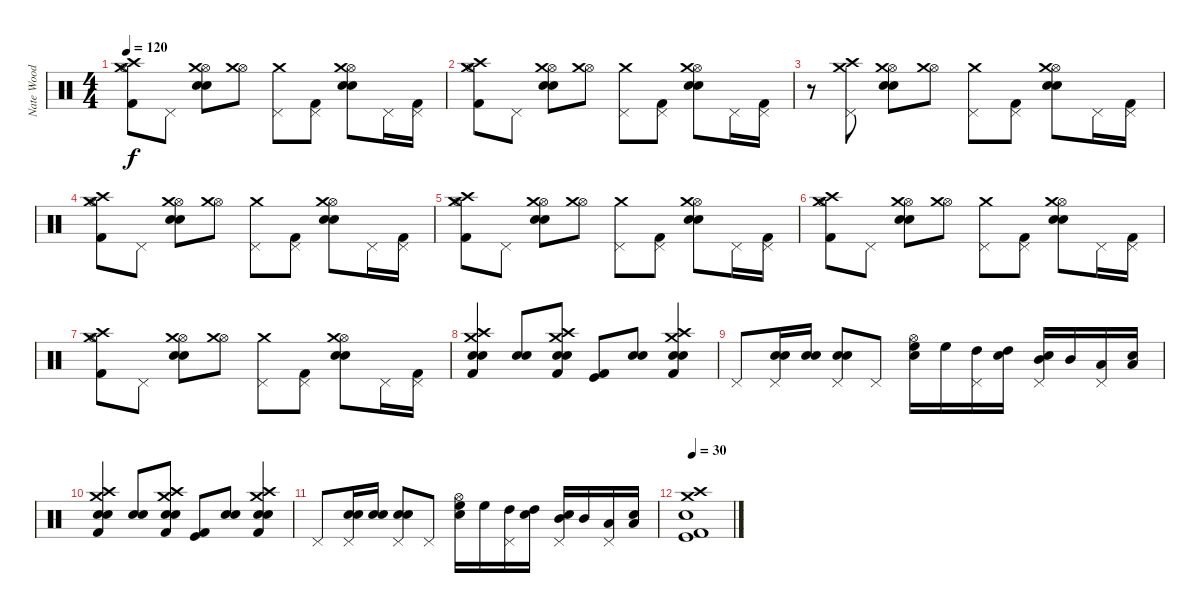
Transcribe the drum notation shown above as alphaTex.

\track ("Nate Wood  (Drums)" "Nate Wood ") {instrument percussion}
\staff {score}
\articulation defaults
\ts (4 4)
\tempo 120
\clef neutral
\ks c
("Kick (hit) 2" "Hi-Hat (open)" "Crash medium (hit)" "Crash high (hit)").8{dy f} "Pedal Hi-Hat (hit)".8 ("Snare (hit) 2" "Electric Snare (hit)" "Hi-Hat (open)" "Crash medium (hit)").8 ("Hi-Hat (open)" "Crash medium (hit)").8 ("Pedal Hi-Hat (hit)" "Crash medium (hit)").8 ("Kick (hit) 2" "Pedal Hi-Hat (hit)").8 ("Snare (hit) 2" "Electric Snare (hit)" "Hi-Hat (open)" "Crash medium (hit)").8 "Pedal Hi-Hat (hit)".16 ("Kick (hit) 2" "Pedal Hi-Hat (hit)").16 |
("Kick (hit) 2" "Hi-Hat (open)" "Crash medium (hit)" "Crash high (hit)").8 "Pedal Hi-Hat (hit)".8 ("Snare (hit) 2" "Electric Snare (hit)" "Hi-Hat (open)" "Crash medium (hit)").8 ("Hi-Hat (open)" "Crash medium (hit)").8 ("Pedal Hi-Hat (hit)" "Crash medium (hit)").8 ("Kick (hit) 2" "Pedal Hi-Hat (hit)").8 ("Snare (hit) 2" "Electric Snare (hit)" "Hi-Hat (open)" "Crash medium (hit)").8 "Pedal Hi-Hat (hit)".16 ("Kick (hit) 2" "Pedal Hi-Hat (hit)").16 |
r.8 ("Pedal Hi-Hat (hit)" "Crash medium (hit)" "Crash high (hit)").8 ("Snare (hit) 2" "Electric Snare (hit)" "Hi-Hat (open)" "Crash medium (hit)").8 ("Hi-Hat (open)" "Crash medium (hit)").8 ("Pedal Hi-Hat (hit)" "Crash medium (hit)").8 ("Kick (hit) 2" "Pedal Hi-Hat (hit)").8 ("Snare (hit) 2" "Electric Snare (hit)" "Hi-Hat (open)" "Crash medium (hit)").8 "Pedal Hi-Hat (hit)".16 ("Kick (hit) 2" "Pedal Hi-Hat (hit)").16 |
("Kick (hit) 2" "Hi-Hat (open)" "Crash medium (hit)" "Crash high (hit)").8 "Pedal Hi-Hat (hit)".8 ("Snare (hit) 2" "Electric Snare (hit)" "Hi-Hat (open)" "Crash medium (hit)").8 ("Hi-Hat (open)" "Crash medium (hit)").8 ("Pedal Hi-Hat (hit)" "Crash medium (hit)").8 ("Kick (hit) 2" "Pedal Hi-Hat (hit)").8 ("Snare (hit) 2" "Electric Snare (hit)" "Hi-Hat (open)" "Crash medium (hit)").8 "Pedal Hi-Hat (hit)".16 ("Kick (hit) 2" "Pedal Hi-Hat (hit)").16 |
("Kick (hit) 2" "Hi-Hat (open)" "Crash medium (hit)" "Crash high (hit)").8 "Pedal Hi-Hat (hit)".8 ("Snare (hit) 2" "Electric Snare (hit)" "Hi-Hat (open)" "Crash medium (hit)").8 ("Hi-Hat (open)" "Crash medium (hit)").8 ("Pedal Hi-Hat (hit)" "Crash medium (hit)").8 ("Kick (hit) 2" "Pedal Hi-Hat (hit)").8 ("Snare (hit) 2" "Electric Snare (hit)" "Hi-Hat (open)" "Crash medium (hit)").8 "Pedal Hi-Hat (hit)".16 ("Kick (hit) 2" "Pedal Hi-Hat (hit)").16 |
("Kick (hit) 2" "Hi-Hat (open)" "Crash medium (hit)" "Crash high (hit)").8 "Pedal Hi-Hat (hit)".8 ("Snare (hit) 2" "Electric Snare (hit)" "Hi-Hat (open)" "Crash medium (hit)").8 ("Hi-Hat (open)" "Crash medium (hit)").8 ("Pedal Hi-Hat (hit)" "Crash medium (hit)").8 ("Kick (hit) 2" "Pedal Hi-Hat (hit)").8 ("Snare (hit) 2" "Electric Snare (hit)" "Hi-Hat (open)" "Crash medium (hit)").8 "Pedal Hi-Hat (hit)".16 ("Kick (hit) 2" "Pedal Hi-Hat (hit)").16 |
("Kick (hit) 2" "Hi-Hat (open)" "Crash medium (hit)" "Crash high (hit)").8 "Pedal Hi-Hat (hit)".8 ("Snare (hit) 2" "Electric Snare (hit)" "Hi-Hat (open)" "Crash medium (hit)").8 ("Hi-Hat (open)" "Crash medium (hit)").8 ("Pedal Hi-Hat (hit)" "Crash medium (hit)").8 ("Kick (hit) 2" "Pedal Hi-Hat (hit)").8 ("Snare (hit) 2" "Electric Snare (hit)" "Hi-Hat (open)" "Crash medium (hit)").8 "Pedal Hi-Hat (hit)".16 ("Kick (hit) 2" "Pedal Hi-Hat (hit)").16 |
("Kick (hit) 2" "Electric Snare (hit)" "Crash medium (hit)" "Crash high (hit)" "Snare (hit) 2").4 ("Snare (hit) 2" "Electric Snare (hit)").8 ("Kick (hit) 2" "Electric Snare (hit)" "Crash medium (hit)" "Crash high (hit)" "Snare (hit) 2").8 ("Kick (hit) 2" "Kick (hit)").8 ("Snare (hit) 2" "Electric Snare (hit)").8 ("Kick (hit) 2" "Electric Snare (hit)" "Crash medium (hit)" "Crash high (hit)" "Snare (hit) 2").4 |
"Pedal Hi-Hat (hit)".8 ("Pedal Hi-Hat (hit)" "Snare (hit) 2" "Electric Snare (hit)").16 ("Snare (hit) 2" "Electric Snare (hit)").16 ("Pedal Hi-Hat (hit)" "Snare (hit) 2" "Electric Snare (hit)").8 "Pedal Hi-Hat (hit)".8 ("Hi-Hat (open)" "Snare (hit) 2" "High Floor Tom (hit)").16 "High Floor Tom (hit)".16 ("Pedal Hi-Hat (hit)" "High Tom (hit)").16 ("Snare (hit) 2" "High Tom (hit)").16 ("Pedal Hi-Hat (hit)" "Snare (hit) 2" "Mid Tom (hit)").16 "Mid Tom (hit)".16 ("Pedal Hi-Hat (hit)" "Low Tom (hit)").16 ("Snare (hit) 2" "Low Tom (hit)").16 |
("Kick (hit) 2" "Electric Snare (hit)" "Crash medium (hit)" "Crash high (hit)" "Snare (hit) 2").4 ("Snare (hit) 2" "Electric Snare (hit)").8 ("Kick (hit) 2" "Electric Snare (hit)" "Crash medium (hit)" "Crash high (hit)" "Snare (hit) 2").8 ("Kick (hit) 2" "Kick (hit)").8 ("Snare (hit) 2" "Electric Snare (hit)").8 ("Kick (hit) 2" "Electric Snare (hit)" "Crash medium (hit)" "Crash high (hit)" "Snare (hit) 2").4 |
"Pedal Hi-Hat (hit)".8 ("Pedal Hi-Hat (hit)" "Snare (hit) 2" "Electric Snare (hit)").16 ("Snare (hit) 2" "Electric Snare (hit)").16 ("Pedal Hi-Hat (hit)" "Snare (hit) 2" "Electric Snare (hit)").8 "Pedal Hi-Hat (hit)".8 ("Hi-Hat (open)" "Snare (hit) 2" "High Floor Tom (hit)").16 "High Floor Tom (hit)".16 ("Pedal Hi-Hat (hit)" "High Tom (hit)").16 ("Snare (hit) 2" "High Tom (hit)").16 ("Pedal Hi-Hat (hit)" "Snare (hit) 2" "Mid Tom (hit)").16 "Mid Tom (hit)".16 ("Pedal Hi-Hat (hit)" "Low Tom (hit)").16 ("Snare (hit) 2" "Low Tom (hit)").16 |
\tempo 30
("Kick (hit) 2" "Snare (hit) 2" "Crash high (hit)" "Crash medium (hit)" "Kick (hit)").1
